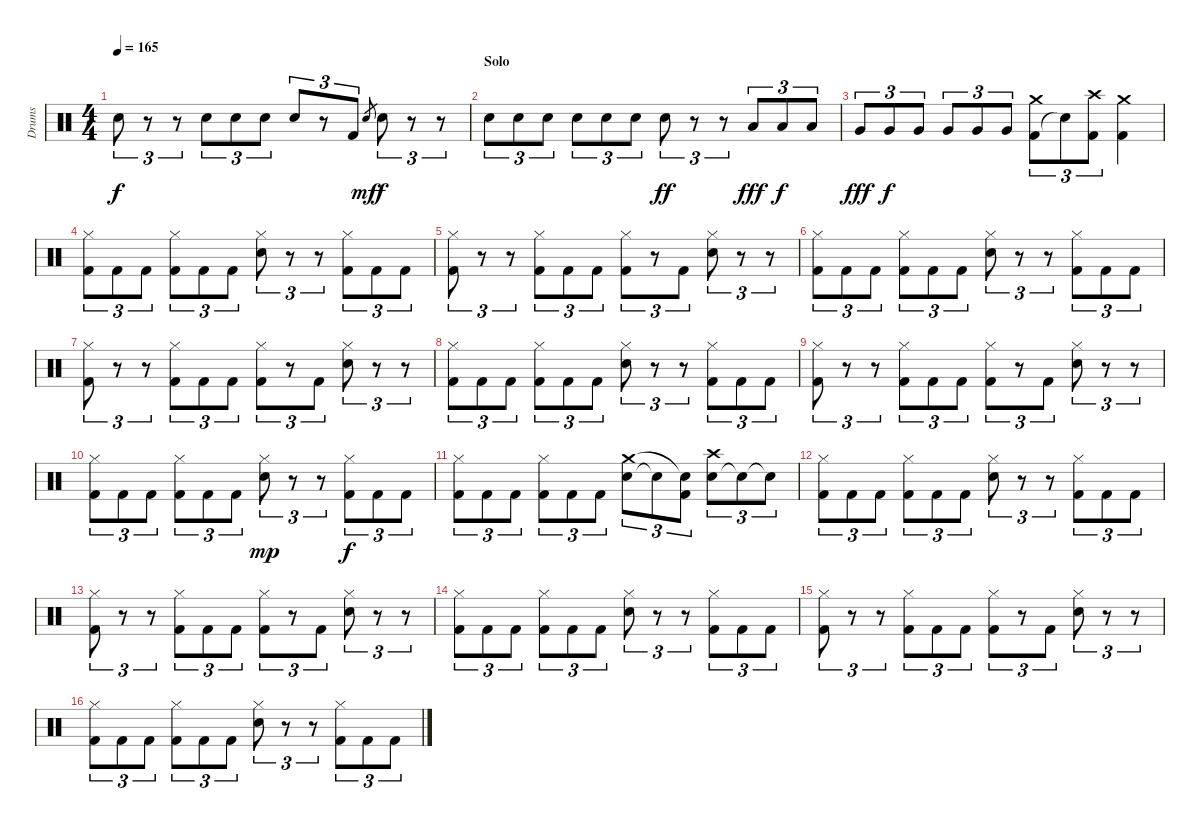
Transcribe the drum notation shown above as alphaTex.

\track ("Drums" "Drums") {instrument percussion}
\staff {score}
\articulation defaults
\ts (4 4)
\tempo 165
\clef neutral
\ks c "Snare (hit) 2".8{tu (3 2) dy f}
r.8{tu (3 2)} r.8{tu (3 2)} "Snare (hit) 2".8{tu (3 2)} "Snare (hit) 2".8{tu (3 2)} "Snare (hit) 2".8{tu (3 2)} "Snare (hit) 2".8{tu (3 2)} r.8{tu (3 2)} "Kick (hit) 2".8{tu (3 2)} "Snare (hit) 2".8{gr dy mf} "Snare (hit) 2".8{tu (3 2) dy f} r.8{tu (3 2)} r.8{tu (3 2)} |
\section ("" "Solo")
"Snare (hit) 2".8{tu (3 2)} "Snare (hit) 2".8{tu (3 2)} "Snare (hit) 2".8{tu (3 2)} "Snare (hit) 2".8{tu (3 2)} "Snare (hit) 2".8{tu (3 2)} "Snare (hit) 2".8{tu (3 2)} "Snare (hit) 2".8{tu (3 2) dy ff} r.8{tu (3 2)} r.8{tu (3 2)} "Low Tom (hit)".8{tu (3 2) dy fff} "Low Tom (hit)".8{tu (3 2) dy f} "Low Tom (hit)".8{tu (3 2)} |
"Very Low Tom (hit)".8{tu (3 2) dy fff} "Very Low Tom (hit)".8{tu (3 2) dy f} "Very Low Tom (hit)".8{tu (3 2)} "Very Low Tom (hit)".8{tu (3 2)} "Very Low Tom (hit)".8{tu (3 2)} "Very Low Tom (hit)".8{tu (3 2)} ("Kick (hit) 2" "Crash medium (hit)").8{tu (3 2)} "Snare (hit)"{t}.8{tu (3 2)} ("Kick (hit) 2" "Crash high (hit)").8{tu (3 2)} ("Kick (hit) 2" "Crash medium (hit)").4 |
("Kick (hit) 2" "Hi-Hat (closed)").8{tu (3 2)} "Kick (hit) 2".8{tu (3 2)} "Kick (hit) 2".8{tu (3 2)} ("Kick (hit) 2" "Hi-Hat (closed)").8{tu (3 2)} "Kick (hit) 2".8{tu (3 2)} "Kick (hit) 2".8{tu (3 2)} ("Snare (hit) 2" "Hi-Hat (closed)").8{tu (3 2)} r.8{tu (3 2)} r.8{tu (3 2)} ("Kick (hit) 2" "Hi-Hat (closed)").8{tu (3 2)} "Kick (hit) 2".8{tu (3 2)} "Kick (hit) 2".8{tu (3 2)} |
("Kick (hit) 2" "Hi-Hat (closed)").8{tu (3 2)} r.8{tu (3 2)} r.8{tu (3 2)} ("Kick (hit) 2" "Hi-Hat (closed)").8{tu (3 2)} "Kick (hit) 2".8{tu (3 2)} "Kick (hit) 2".8{tu (3 2)} ("Kick (hit) 2" "Hi-Hat (closed)").8{tu (3 2)} r.8{tu (3 2)} "Kick (hit) 2".8{tu (3 2)} ("Snare (hit) 2" "Hi-Hat (closed)").8{tu (3 2)} r.8{tu (3 2)} r.8{tu (3 2)} |
("Kick (hit) 2" "Hi-Hat (closed)").8{tu (3 2)} "Kick (hit) 2".8{tu (3 2)} "Kick (hit) 2".8{tu (3 2)} ("Kick (hit) 2" "Hi-Hat (closed)").8{tu (3 2)} "Kick (hit) 2".8{tu (3 2)} "Kick (hit) 2".8{tu (3 2)} ("Snare (hit) 2" "Hi-Hat (closed)").8{tu (3 2)} r.8{tu (3 2)} r.8{tu (3 2)} ("Kick (hit) 2" "Hi-Hat (closed)").8{tu (3 2)} "Kick (hit) 2".8{tu (3 2)} "Kick (hit) 2".8{tu (3 2)} |
("Kick (hit) 2" "Hi-Hat (closed)").8{tu (3 2)} r.8{tu (3 2)} r.8{tu (3 2)} ("Kick (hit) 2" "Hi-Hat (closed)").8{tu (3 2)} "Kick (hit) 2".8{tu (3 2)} "Kick (hit) 2".8{tu (3 2)} ("Kick (hit) 2" "Hi-Hat (closed)").8{tu (3 2)} r.8{tu (3 2)} "Kick (hit) 2".8{tu (3 2)} ("Snare (hit) 2" "Hi-Hat (closed)").8{tu (3 2)} r.8{tu (3 2)} r.8{tu (3 2)} |
("Kick (hit) 2" "Hi-Hat (closed)").8{tu (3 2)} "Kick (hit) 2".8{tu (3 2)} "Kick (hit) 2".8{tu (3 2)} ("Kick (hit) 2" "Hi-Hat (closed)").8{tu (3 2)} "Kick (hit) 2".8{tu (3 2)} "Kick (hit) 2".8{tu (3 2)} ("Snare (hit) 2" "Hi-Hat (closed)").8{tu (3 2)} r.8{tu (3 2)} r.8{tu (3 2)} ("Kick (hit) 2" "Hi-Hat (closed)").8{tu (3 2)} "Kick (hit) 2".8{tu (3 2)} "Kick (hit) 2".8{tu (3 2)} |
("Kick (hit) 2" "Hi-Hat (closed)").8{tu (3 2)} r.8{tu (3 2)} r.8{tu (3 2)} ("Kick (hit) 2" "Hi-Hat (closed)").8{tu (3 2)} "Kick (hit) 2".8{tu (3 2)} "Kick (hit) 2".8{tu (3 2)} ("Kick (hit) 2" "Hi-Hat (closed)").8{tu (3 2)} r.8{tu (3 2)} "Kick (hit) 2".8{tu (3 2)} ("Snare (hit) 2" "Hi-Hat (closed)").8{tu (3 2)} r.8{tu (3 2)} r.8{tu (3 2)} |
("Kick (hit) 2" "Hi-Hat (closed)").8{tu (3 2)} "Kick (hit) 2".8{tu (3 2)} "Kick (hit) 2".8{tu (3 2)} ("Kick (hit) 2" "Hi-Hat (closed)").8{tu (3 2)} "Kick (hit) 2".8{tu (3 2)} "Kick (hit) 2".8{tu (3 2)} ("Snare (hit) 2" "Hi-Hat (closed)").8{tu (3 2) dy mp} r.8{tu (3 2)} r.8{tu (3 2)} ("Kick (hit) 2" "Hi-Hat (closed)").8{tu (3 2) dy f} "Kick (hit) 2".8{tu (3 2)} "Kick (hit) 2".8{tu (3 2)} |
("Kick (hit) 2" "Hi-Hat (closed)").8{tu (3 2)} "Kick (hit) 2".8{tu (3 2)} "Kick (hit) 2".8{tu (3 2)} ("Kick (hit) 2" "Hi-Hat (closed)").8{tu (3 2)} "Kick (hit) 2".8{tu (3 2)} "Kick (hit) 2".8{tu (3 2)} ("Snare (hit) 2" "Crash medium (hit)").8{tu (3 2)} "Snare (hit)"{t}.8{tu (3 2)} ("Kick (hit) 2" "Snare (hit)"{t}).8{tu (3 2)} ("Snare (hit) 2" "Crash high (hit)").8{tu (3 2)} "Snare (hit)"{t}.8{tu (3 2)} "Snare (hit)"{t}.8{tu (3 2)} |
("Kick (hit) 2" "Hi-Hat (closed)").8{tu (3 2)} "Kick (hit) 2".8{tu (3 2)} "Kick (hit) 2".8{tu (3 2)} ("Kick (hit) 2" "Hi-Hat (closed)").8{tu (3 2)} "Kick (hit) 2".8{tu (3 2)} "Kick (hit) 2".8{tu (3 2)} ("Snare (hit) 2" "Hi-Hat (closed)").8{tu (3 2)} r.8{tu (3 2)} r.8{tu (3 2)} ("Kick (hit) 2" "Hi-Hat (closed)").8{tu (3 2)} "Kick (hit) 2".8{tu (3 2)} "Kick (hit) 2".8{tu (3 2)} |
("Kick (hit) 2" "Hi-Hat (closed)").8{tu (3 2)} r.8{tu (3 2)} r.8{tu (3 2)} ("Kick (hit) 2" "Hi-Hat (closed)").8{tu (3 2)} "Kick (hit) 2".8{tu (3 2)} "Kick (hit) 2".8{tu (3 2)} ("Kick (hit) 2" "Hi-Hat (closed)").8{tu (3 2)} r.8{tu (3 2)} "Kick (hit) 2".8{tu (3 2)} ("Snare (hit) 2" "Hi-Hat (closed)").8{tu (3 2)} r.8{tu (3 2)} r.8{tu (3 2)} |
("Kick (hit) 2" "Hi-Hat (closed)").8{tu (3 2)} "Kick (hit) 2".8{tu (3 2)} "Kick (hit) 2".8{tu (3 2)} ("Kick (hit) 2" "Hi-Hat (closed)").8{tu (3 2)} "Kick (hit) 2".8{tu (3 2)} "Kick (hit) 2".8{tu (3 2)} ("Snare (hit) 2" "Hi-Hat (closed)").8{tu (3 2)} r.8{tu (3 2)} r.8{tu (3 2)} ("Kick (hit) 2" "Hi-Hat (closed)").8{tu (3 2)} "Kick (hit) 2".8{tu (3 2)} "Kick (hit) 2".8{tu (3 2)} |
("Kick (hit) 2" "Hi-Hat (closed)").8{tu (3 2)} r.8{tu (3 2)} r.8{tu (3 2)} ("Kick (hit) 2" "Hi-Hat (closed)").8{tu (3 2)} "Kick (hit) 2".8{tu (3 2)} "Kick (hit) 2".8{tu (3 2)} ("Kick (hit) 2" "Hi-Hat (closed)").8{tu (3 2)} r.8{tu (3 2)} "Kick (hit) 2".8{tu (3 2)} ("Snare (hit) 2" "Hi-Hat (closed)").8{tu (3 2)} r.8{tu (3 2)} r.8{tu (3 2)} |
("Kick (hit) 2" "Hi-Hat (closed)").8{tu (3 2)} "Kick (hit) 2".8{tu (3 2)} "Kick (hit) 2".8{tu (3 2)} ("Kick (hit) 2" "Hi-Hat (closed)").8{tu (3 2)} "Kick (hit) 2".8{tu (3 2)} "Kick (hit) 2".8{tu (3 2)} ("Snare (hit) 2" "Hi-Hat (closed)").8{tu (3 2)} r.8{tu (3 2)} r.8{tu (3 2)} ("Kick (hit) 2" "Hi-Hat (closed)").8{tu (3 2)} "Kick (hit) 2".8{tu (3 2)} "Kick (hit) 2".8{tu (3 2)}
